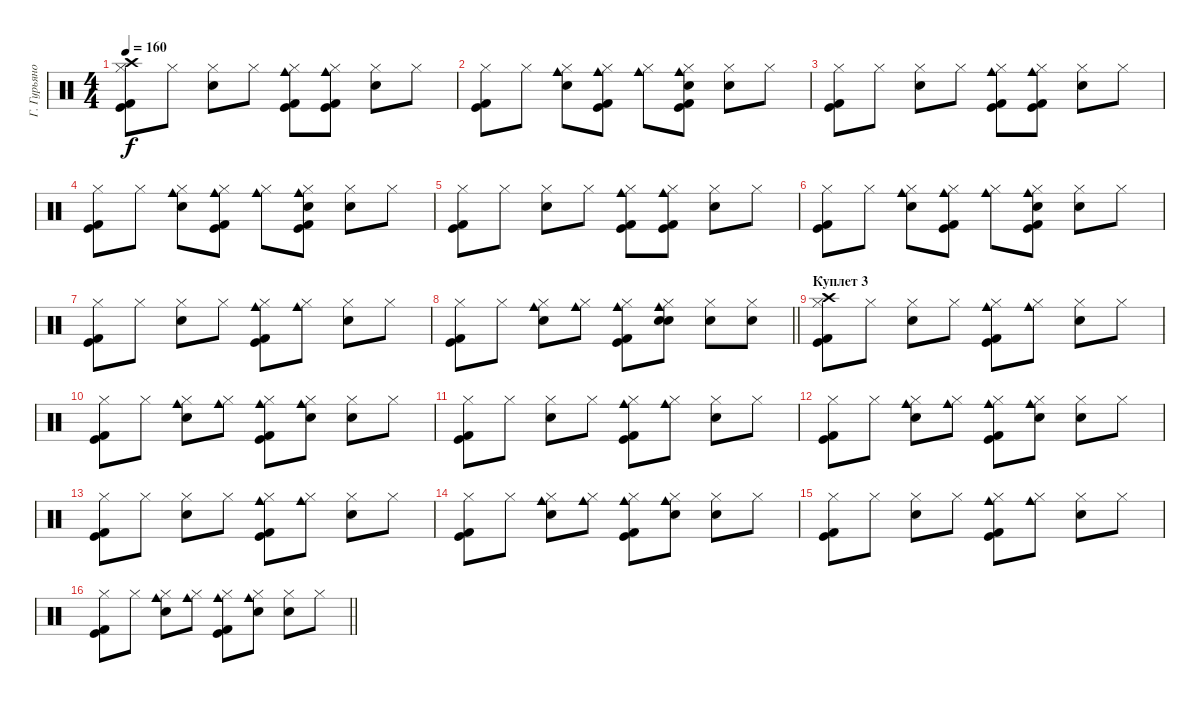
\track ("Г. Гурьянов" "Г. Гурьяно") {instrument percussion}
\staff
\articulation defaults
\ts (4 4)
\tempo 160
\clef neutral
\ks c
("Hi-Hat (closed)" "Crash high (hit)" "Kick (hit)" "Kick (hit) 2").8{dy f} "Hi-Hat (closed)".8 ("Hi-Hat (closed)" "Snare (hit) 2").8 "Hi-Hat (closed)".8 ("Hi-Hat (closed)" "Cowbell medium (hit)" "Kick (hit)" "Kick (hit) 2").8 ("Hi-Hat (closed)" "Cowbell medium (hit)" "Kick (hit)" "Kick (hit) 2").8 ("Hi-Hat (closed)" "Snare (hit) 2").8 "Hi-Hat (closed)".8 |
("Hi-Hat (closed)" "Kick (hit)" "Kick (hit) 2").8 "Hi-Hat (closed)".8 ("Hi-Hat (closed)" "Cowbell medium (hit)" "Snare (hit) 2").8 ("Hi-Hat (closed)" "Cowbell medium (hit)" "Kick (hit)" "Kick (hit) 2").8 ("Hi-Hat (closed)" "Cowbell medium (hit)").8 ("Hi-Hat (closed)" "Cowbell medium (hit)" "Hand Clap (hit)" "Kick (hit)" "Kick (hit) 2").8 ("Hi-Hat (closed)" "Snare (hit) 2").8 "Hi-Hat (closed)".8 |
("Hi-Hat (closed)" "Kick (hit)" "Kick (hit) 2").8 "Hi-Hat (closed)".8 ("Hi-Hat (closed)" "Snare (hit) 2").8 "Hi-Hat (closed)".8 ("Hi-Hat (closed)" "Cowbell medium (hit)" "Kick (hit)" "Kick (hit) 2").8 ("Hi-Hat (closed)" "Cowbell medium (hit)" "Kick (hit)" "Kick (hit) 2").8 ("Hi-Hat (closed)" "Snare (hit) 2").8 "Hi-Hat (closed)".8 |
("Hi-Hat (closed)" "Kick (hit)" "Kick (hit) 2").8 "Hi-Hat (closed)".8 ("Hi-Hat (closed)" "Cowbell medium (hit)" "Snare (hit) 2").8 ("Hi-Hat (closed)" "Cowbell medium (hit)" "Kick (hit)" "Kick (hit) 2").8 ("Hi-Hat (closed)" "Cowbell medium (hit)").8 ("Hi-Hat (closed)" "Cowbell medium (hit)" "Hand Clap (hit)" "Kick (hit)" "Kick (hit) 2").8 ("Hi-Hat (closed)" "Snare (hit) 2").8 "Hi-Hat (closed)".8 |
("Hi-Hat (closed)" "Kick (hit)" "Kick (hit) 2").8 "Hi-Hat (closed)".8 ("Hi-Hat (closed)" "Snare (hit) 2").8 "Hi-Hat (closed)".8 ("Hi-Hat (closed)" "Cowbell medium (hit)" "Kick (hit)" "Kick (hit) 2").8 ("Hi-Hat (closed)" "Cowbell medium (hit)" "Kick (hit)" "Kick (hit) 2").8 ("Hi-Hat (closed)" "Snare (hit) 2").8 "Hi-Hat (closed)".8 |
("Hi-Hat (closed)" "Kick (hit)" "Kick (hit) 2").8 "Hi-Hat (closed)".8 ("Hi-Hat (closed)" "Cowbell medium (hit)" "Snare (hit) 2").8 ("Hi-Hat (closed)" "Cowbell medium (hit)" "Kick (hit)" "Kick (hit) 2").8 ("Hi-Hat (closed)" "Cowbell medium (hit)").8 ("Hi-Hat (closed)" "Cowbell medium (hit)" "Hand Clap (hit)" "Kick (hit)" "Kick (hit) 2").8 ("Hi-Hat (closed)" "Snare (hit) 2").8 "Hi-Hat (closed)".8 |
("Hi-Hat (closed)" "Kick (hit)" "Kick (hit) 2").8 "Hi-Hat (closed)".8 ("Hi-Hat (closed)" "Snare (hit) 2").8 "Hi-Hat (closed)".8 ("Hi-Hat (closed)" "Cowbell medium (hit)" "Kick (hit)" "Kick (hit) 2").8 ("Hi-Hat (closed)" "Cowbell medium (hit)").8 ("Hi-Hat (closed)" "Snare (hit) 2").8 "Hi-Hat (closed)".8 |
\barLineRight lightlight
("Hi-Hat (closed)" "Kick (hit)" "Kick (hit) 2").8 "Hi-Hat (closed)".8 ("Hi-Hat (closed)" "Cowbell medium (hit)" "Snare (hit) 2").8 ("Hi-Hat (closed)" "Cowbell medium (hit)").8 ("Hi-Hat (closed)" "Cowbell medium (hit)" "Kick (hit)" "Kick (hit) 2").8 ("Hi-Hat (closed)" "Cowbell medium (hit)" "Snare (hit) 2" "Hand Clap (hit)").8 ("Hi-Hat (closed)" "Snare (hit) 2").8 ("Hi-Hat (closed)" "Snare (hit) 2").8 |
\section ("" "Куплет 3")
("Hi-Hat (closed)" "Crash high (hit)" "Kick (hit)" "Kick (hit) 2").8 "Hi-Hat (closed)".8 ("Hi-Hat (closed)" "Snare (hit) 2").8 "Hi-Hat (closed)".8 ("Hi-Hat (closed)" "Cowbell medium (hit)" "Kick (hit)" "Kick (hit) 2").8 ("Hi-Hat (closed)" "Cowbell medium (hit)").8 ("Hi-Hat (closed)" "Snare (hit) 2").8 "Hi-Hat (closed)".8 |
("Hi-Hat (closed)" "Kick (hit)" "Kick (hit) 2").8 "Hi-Hat (closed)".8 ("Hi-Hat (closed)" "Cowbell medium (hit)" "Snare (hit) 2").8 ("Hi-Hat (closed)" "Cowbell medium (hit)").8 ("Hi-Hat (closed)" "Cowbell medium (hit)" "Kick (hit)" "Kick (hit) 2").8 ("Hi-Hat (closed)" "Cowbell medium (hit)" "Hand Clap (hit)").8 ("Hi-Hat (closed)" "Snare (hit) 2").8 "Hi-Hat (closed)".8 |
("Hi-Hat (closed)" "Kick (hit)" "Kick (hit) 2").8 "Hi-Hat (closed)".8 ("Hi-Hat (closed)" "Snare (hit) 2").8 "Hi-Hat (closed)".8 ("Hi-Hat (closed)" "Cowbell medium (hit)" "Kick (hit)" "Kick (hit) 2").8 ("Hi-Hat (closed)" "Cowbell medium (hit)").8 ("Hi-Hat (closed)" "Snare (hit) 2").8 "Hi-Hat (closed)".8 |
("Hi-Hat (closed)" "Kick (hit)" "Kick (hit) 2").8 "Hi-Hat (closed)".8 ("Hi-Hat (closed)" "Cowbell medium (hit)" "Snare (hit) 2").8 ("Hi-Hat (closed)" "Cowbell medium (hit)").8 ("Hi-Hat (closed)" "Cowbell medium (hit)" "Kick (hit)" "Kick (hit) 2").8 ("Hi-Hat (closed)" "Cowbell medium (hit)" "Hand Clap (hit)").8 ("Hi-Hat (closed)" "Snare (hit) 2").8 "Hi-Hat (closed)".8 |
("Hi-Hat (closed)" "Kick (hit)" "Kick (hit) 2").8 "Hi-Hat (closed)".8 ("Hi-Hat (closed)" "Snare (hit) 2").8 "Hi-Hat (closed)".8 ("Hi-Hat (closed)" "Cowbell medium (hit)" "Kick (hit)" "Kick (hit) 2").8 ("Hi-Hat (closed)" "Cowbell medium (hit)").8 ("Hi-Hat (closed)" "Snare (hit) 2").8 "Hi-Hat (closed)".8 |
("Hi-Hat (closed)" "Kick (hit)" "Kick (hit) 2").8 "Hi-Hat (closed)".8 ("Hi-Hat (closed)" "Cowbell medium (hit)" "Snare (hit) 2").8 ("Hi-Hat (closed)" "Cowbell medium (hit)").8 ("Hi-Hat (closed)" "Cowbell medium (hit)" "Kick (hit)" "Kick (hit) 2").8 ("Hi-Hat (closed)" "Cowbell medium (hit)" "Hand Clap (hit)").8 ("Hi-Hat (closed)" "Snare (hit) 2").8 "Hi-Hat (closed)".8 |
("Hi-Hat (closed)" "Kick (hit)" "Kick (hit) 2").8 "Hi-Hat (closed)".8 ("Hi-Hat (closed)" "Snare (hit) 2").8 "Hi-Hat (closed)".8 ("Hi-Hat (closed)" "Cowbell medium (hit)" "Kick (hit)" "Kick (hit) 2").8 ("Hi-Hat (closed)" "Cowbell medium (hit)").8 ("Hi-Hat (closed)" "Snare (hit) 2").8 "Hi-Hat (closed)".8 |
\barLineRight lightlight
("Hi-Hat (closed)" "Kick (hit)" "Kick (hit) 2").8 "Hi-Hat (closed)".8 ("Hi-Hat (closed)" "Cowbell medium (hit)" "Snare (hit) 2").8 ("Hi-Hat (closed)" "Cowbell medium (hit)").8 ("Hi-Hat (closed)" "Cowbell medium (hit)" "Kick (hit)" "Kick (hit) 2").8 ("Hi-Hat (closed)" "Cowbell medium (hit)" "Hand Clap (hit)").8 ("Hi-Hat (closed)" "Snare (hit) 2").8 "Hi-Hat (closed)".8
